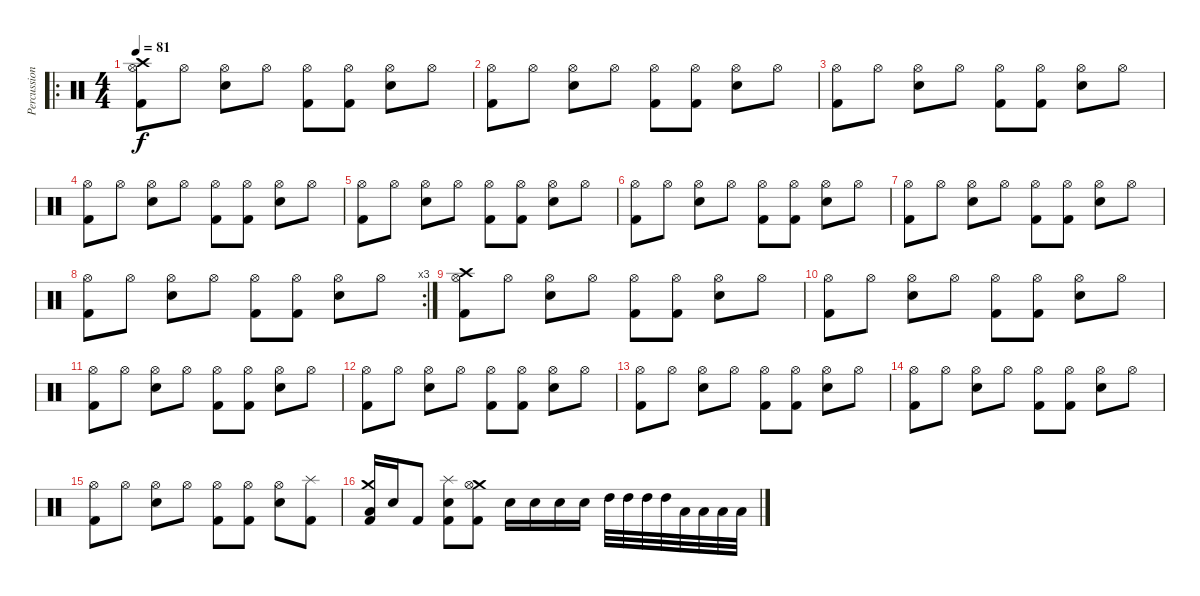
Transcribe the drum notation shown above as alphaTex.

\track ("Percussions" "Percussion") {instrument percussion}
\staff {score}
\articulation defaults
\ro
\ts (4 4)
\tempo 81
\clef neutral
\ks c
("Crash high (hit)" "Hi-Hat (open)" "Kick (hit) 2").8{dy f} "Hi-Hat (open)".8 ("Hi-Hat (open)" "Snare (hit) 2").8 "Hi-Hat (open)".8 ("Hi-Hat (open)" "Kick (hit) 2").8 ("Hi-Hat (open)" "Kick (hit) 2").8 ("Hi-Hat (open)" "Snare (hit) 2").8 "Hi-Hat (open)".8 |
("Hi-Hat (open)" "Kick (hit) 2").8 "Hi-Hat (open)".8 ("Hi-Hat (open)" "Snare (hit) 2").8 "Hi-Hat (open)".8 ("Hi-Hat (open)" "Kick (hit) 2").8 ("Hi-Hat (open)" "Kick (hit) 2").8 ("Hi-Hat (open)" "Snare (hit) 2").8 "Hi-Hat (open)".8 |
("Hi-Hat (open)" "Kick (hit) 2").8 "Hi-Hat (open)".8 ("Hi-Hat (open)" "Snare (hit) 2").8 "Hi-Hat (open)".8 ("Hi-Hat (open)" "Kick (hit) 2").8 ("Hi-Hat (open)" "Kick (hit) 2").8 ("Hi-Hat (open)" "Snare (hit) 2").8 "Hi-Hat (open)".8 |
("Hi-Hat (open)" "Kick (hit) 2").8 "Hi-Hat (open)".8 ("Hi-Hat (open)" "Snare (hit) 2").8 "Hi-Hat (open)".8 ("Hi-Hat (open)" "Kick (hit) 2").8 ("Hi-Hat (open)" "Kick (hit) 2").8 ("Hi-Hat (open)" "Snare (hit) 2").8 "Hi-Hat (open)".8 |
("Hi-Hat (open)" "Kick (hit) 2").8 "Hi-Hat (open)".8 ("Hi-Hat (open)" "Snare (hit) 2").8 "Hi-Hat (open)".8 ("Hi-Hat (open)" "Kick (hit) 2").8 ("Hi-Hat (open)" "Kick (hit) 2").8 ("Hi-Hat (open)" "Snare (hit) 2").8 "Hi-Hat (open)".8 |
("Hi-Hat (open)" "Kick (hit) 2").8 "Hi-Hat (open)".8 ("Hi-Hat (open)" "Snare (hit) 2").8 "Hi-Hat (open)".8 ("Hi-Hat (open)" "Kick (hit) 2").8 ("Hi-Hat (open)" "Kick (hit) 2").8 ("Hi-Hat (open)" "Snare (hit) 2").8 "Hi-Hat (open)".8 |
("Hi-Hat (open)" "Kick (hit) 2").8 "Hi-Hat (open)".8 ("Hi-Hat (open)" "Snare (hit) 2").8 "Hi-Hat (open)".8 ("Hi-Hat (open)" "Kick (hit) 2").8 ("Hi-Hat (open)" "Kick (hit) 2").8 ("Hi-Hat (open)" "Snare (hit) 2").8 "Hi-Hat (open)".8 |
\rc 3
("Hi-Hat (open)" "Kick (hit) 2").8 "Hi-Hat (open)".8 ("Hi-Hat (open)" "Snare (hit) 2").8 "Hi-Hat (open)".8 ("Hi-Hat (open)" "Kick (hit) 2").8 ("Hi-Hat (open)" "Kick (hit) 2").8 ("Hi-Hat (open)" "Snare (hit) 2").8 "Hi-Hat (open)".8 |
("Crash high (hit)" "Hi-Hat (open)" "Kick (hit) 2").8 "Hi-Hat (open)".8 ("Hi-Hat (open)" "Snare (hit) 2").8 "Hi-Hat (open)".8 ("Hi-Hat (open)" "Kick (hit) 2").8 ("Hi-Hat (open)" "Kick (hit) 2").8 ("Hi-Hat (open)" "Snare (hit) 2").8 "Hi-Hat (open)".8 |
("Hi-Hat (open)" "Kick (hit) 2").8 "Hi-Hat (open)".8 ("Hi-Hat (open)" "Snare (hit) 2").8 "Hi-Hat (open)".8 ("Hi-Hat (open)" "Kick (hit) 2").8 ("Hi-Hat (open)" "Kick (hit) 2").8 ("Hi-Hat (open)" "Snare (hit) 2").8 "Hi-Hat (open)".8 |
("Hi-Hat (open)" "Kick (hit) 2").8 "Hi-Hat (open)".8 ("Hi-Hat (open)" "Snare (hit) 2").8 "Hi-Hat (open)".8 ("Hi-Hat (open)" "Kick (hit) 2").8 ("Hi-Hat (open)" "Kick (hit) 2").8 ("Hi-Hat (open)" "Snare (hit) 2").8 "Hi-Hat (open)".8 |
("Hi-Hat (open)" "Kick (hit) 2").8 "Hi-Hat (open)".8 ("Hi-Hat (open)" "Snare (hit) 2").8 "Hi-Hat (open)".8 ("Hi-Hat (open)" "Kick (hit) 2").8 ("Hi-Hat (open)" "Kick (hit) 2").8 ("Hi-Hat (open)" "Snare (hit) 2").8 "Hi-Hat (open)".8 |
("Hi-Hat (open)" "Kick (hit) 2").8 "Hi-Hat (open)".8 ("Hi-Hat (open)" "Snare (hit) 2").8 "Hi-Hat (open)".8 ("Hi-Hat (open)" "Kick (hit) 2").8 ("Hi-Hat (open)" "Kick (hit) 2").8 ("Hi-Hat (open)" "Snare (hit) 2").8 "Hi-Hat (open)".8 |
("Hi-Hat (open)" "Kick (hit) 2").8 "Hi-Hat (open)".8 ("Hi-Hat (open)" "Snare (hit) 2").8 "Hi-Hat (open)".8 ("Hi-Hat (open)" "Kick (hit) 2").8 ("Hi-Hat (open)" "Kick (hit) 2").8 ("Hi-Hat (open)" "Snare (hit) 2").8 "Hi-Hat (open)".8 |
("Hi-Hat (open)" "Kick (hit) 2").8 "Hi-Hat (open)".8 ("Hi-Hat (open)" "Snare (hit) 2").8 "Hi-Hat (open)".8 ("Hi-Hat (open)" "Kick (hit) 2").8 ("Hi-Hat (open)" "Kick (hit) 2").8 ("Hi-Hat (open)" "Snare (hit) 2").8 ("Splash (hit)" "Kick (hit) 2").8 |
("Crash medium (hit)" "Low Tom (hit)" "Kick (hit) 2").16 "Snare (hit) 2".16 "Kick (hit) 2".8 ("Splash (hit)" "Snare (hit) 2" "Kick (hit) 2").8 ("Crash medium (hit)" "Hi-Hat (open)" "Kick (hit) 2").8 "Snare (hit) 2".16 "Snare (hit) 2".16 "Snare (hit) 2".16 "Snare (hit) 2".16 "High Tom (hit)".32 "High Tom (hit)".32 "High Tom (hit)".32 "High Tom (hit)".32 "Low Tom (hit)".32 "Low Tom (hit)".32 "Low Tom (hit)".32 "Low Tom (hit)".32
